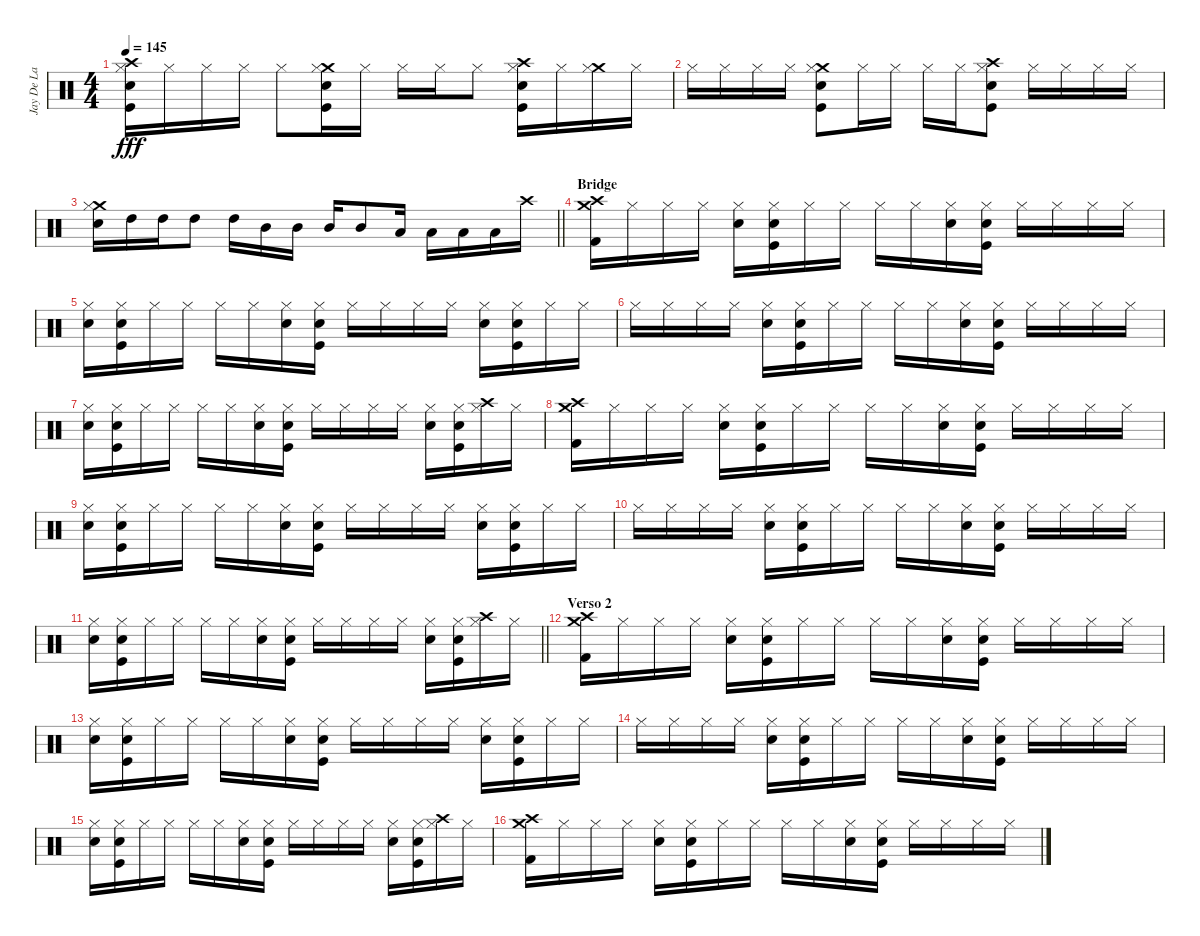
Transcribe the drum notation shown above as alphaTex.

\track ("Jay De La Cueva o C. G." "Jay De La ") {instrument percussion}
\staff {score}
\articulation defaults
\ts (4 4)
\tempo 145
\clef neutral
\ks c
("Crash high (hit)" "Snare (hit) 2" "Hi-Hat (closed)" "Kick (hit)").16{dy fff} "Hi-Hat (closed)".16 "Hi-Hat (closed)".16 "Hi-Hat (closed)".16 "Hi-Hat (closed)".8 ("Crash medium (hit)" "Snare (hit) 2" "Hi-Hat (closed)" "Kick (hit)").16 "Hi-Hat (closed)".16 "Hi-Hat (closed)".16 "Hi-Hat (closed)".16 "Hi-Hat (closed)".8 ("Crash high (hit)" "Snare (hit) 2" "Hi-Hat (closed)" "Kick (hit)").16 "Hi-Hat (closed)".16 ("Crash medium (hit)" "Hi-Hat (closed)").16 "Hi-Hat (closed)".16 |
"Hi-Hat (closed)".16 "Hi-Hat (closed)".16 "Hi-Hat (closed)".16 "Hi-Hat (closed)".16 ("Crash medium (hit)" "Snare (hit) 2" "Hi-Hat (closed)" "Kick (hit)").8 "Hi-Hat (closed)".16 "Hi-Hat (closed)".16 "Hi-Hat (closed)".16 "Hi-Hat (closed)".16 ("Crash high (hit)" "Snare (hit) 2" "Hi-Hat (closed)" "Kick (hit)").8 "Hi-Hat (closed)".16 "Hi-Hat (closed)".16 "Hi-Hat (closed)".16 "Hi-Hat (closed)".16 |
\barLineRight lightlight
("Crash medium (hit)" "Snare (hit) 2" "Hi-Hat (closed)").16 "High Tom (hit)".16 "High Tom (hit)".16 "High Tom (hit)".8 "High Tom (hit)".16 "Mid Tom (hit)".16 "Mid Tom (hit)".16 "Mid Tom (hit)".16 "Mid Tom (hit)".8 "Low Tom (hit)".16 "Low Tom (hit)".16 "Low Tom (hit)".16 "Low Tom (hit)".16 "Crash high (hit)".16 |
\section ("" "Bridge")
("Crash high (hit)" "Crash medium (hit)" "Kick (hit) 2").16 "Hi-Hat (closed)".16 "Hi-Hat (closed)".16 "Hi-Hat (closed)".16 ("Snare (hit) 2" "Hi-Hat (closed)").16 ("Kick (hit)" "Snare (hit) 2" "Hi-Hat (closed)").16 "Hi-Hat (closed)".16 "Hi-Hat (closed)".16 "Hi-Hat (closed)".16 "Hi-Hat (closed)".16 ("Snare (hit) 2" "Hi-Hat (closed)").16 ("Kick (hit)" "Snare (hit) 2" "Hi-Hat (closed)").16 "Hi-Hat (closed)".16 "Hi-Hat (closed)".16 "Hi-Hat (closed)".16 "Hi-Hat (closed)".16 |
("Snare (hit) 2" "Hi-Hat (closed)").16 ("Kick (hit)" "Snare (hit) 2" "Hi-Hat (closed)").16 "Hi-Hat (closed)".16 "Hi-Hat (closed)".16 "Hi-Hat (closed)".16 "Hi-Hat (closed)".16 ("Snare (hit) 2" "Hi-Hat (closed)").16 ("Kick (hit)" "Snare (hit) 2" "Hi-Hat (closed)").16 "Hi-Hat (closed)".16 "Hi-Hat (closed)".16 "Hi-Hat (closed)".16 "Hi-Hat (closed)".16 ("Snare (hit) 2" "Hi-Hat (closed)").16 ("Kick (hit)" "Snare (hit) 2" "Hi-Hat (closed)").16 "Hi-Hat (closed)".16 "Hi-Hat (closed)".16 |
"Hi-Hat (closed)".16 "Hi-Hat (closed)".16 "Hi-Hat (closed)".16 "Hi-Hat (closed)".16 ("Snare (hit) 2" "Hi-Hat (closed)").16 ("Kick (hit)" "Snare (hit) 2" "Hi-Hat (closed)").16 "Hi-Hat (closed)".16 "Hi-Hat (closed)".16 "Hi-Hat (closed)".16 "Hi-Hat (closed)".16 ("Snare (hit) 2" "Hi-Hat (closed)").16 ("Kick (hit)" "Snare (hit) 2" "Hi-Hat (closed)").16 "Hi-Hat (closed)".16 "Hi-Hat (closed)".16 "Hi-Hat (closed)".16 "Hi-Hat (closed)".16 |
("Snare (hit) 2" "Hi-Hat (closed)").16 ("Kick (hit)" "Snare (hit) 2" "Hi-Hat (closed)").16 "Hi-Hat (closed)".16 "Hi-Hat (closed)".16 "Hi-Hat (closed)".16 "Hi-Hat (closed)".16 ("Snare (hit) 2" "Hi-Hat (closed)").16 ("Kick (hit)" "Snare (hit) 2" "Hi-Hat (closed)").16 "Hi-Hat (closed)".16 "Hi-Hat (closed)".16 "Hi-Hat (closed)".16 "Hi-Hat (closed)".16 ("Snare (hit) 2" "Hi-Hat (closed)").16 ("Kick (hit)" "Snare (hit) 2" "Hi-Hat (closed)").16 ("Crash high (hit)" "Hi-Hat (closed)").16 "Hi-Hat (closed)".16 |
("Crash high (hit)" "Crash medium (hit)" "Kick (hit) 2").16 "Hi-Hat (closed)".16 "Hi-Hat (closed)".16 "Hi-Hat (closed)".16 ("Snare (hit) 2" "Hi-Hat (closed)").16 ("Kick (hit)" "Snare (hit) 2" "Hi-Hat (closed)").16 "Hi-Hat (closed)".16 "Hi-Hat (closed)".16 "Hi-Hat (closed)".16 "Hi-Hat (closed)".16 ("Snare (hit) 2" "Hi-Hat (closed)").16 ("Kick (hit)" "Snare (hit) 2" "Hi-Hat (closed)").16 "Hi-Hat (closed)".16 "Hi-Hat (closed)".16 "Hi-Hat (closed)".16 "Hi-Hat (closed)".16 |
("Snare (hit) 2" "Hi-Hat (closed)").16 ("Kick (hit)" "Snare (hit) 2" "Hi-Hat (closed)").16 "Hi-Hat (closed)".16 "Hi-Hat (closed)".16 "Hi-Hat (closed)".16 "Hi-Hat (closed)".16 ("Snare (hit) 2" "Hi-Hat (closed)").16 ("Kick (hit)" "Snare (hit) 2" "Hi-Hat (closed)").16 "Hi-Hat (closed)".16 "Hi-Hat (closed)".16 "Hi-Hat (closed)".16 "Hi-Hat (closed)".16 ("Snare (hit) 2" "Hi-Hat (closed)").16 ("Kick (hit)" "Snare (hit) 2" "Hi-Hat (closed)").16 "Hi-Hat (closed)".16 "Hi-Hat (closed)".16 |
"Hi-Hat (closed)".16 "Hi-Hat (closed)".16 "Hi-Hat (closed)".16 "Hi-Hat (closed)".16 ("Snare (hit) 2" "Hi-Hat (closed)").16 ("Kick (hit)" "Snare (hit) 2" "Hi-Hat (closed)").16 "Hi-Hat (closed)".16 "Hi-Hat (closed)".16 "Hi-Hat (closed)".16 "Hi-Hat (closed)".16 ("Snare (hit) 2" "Hi-Hat (closed)").16 ("Kick (hit)" "Snare (hit) 2" "Hi-Hat (closed)").16 "Hi-Hat (closed)".16 "Hi-Hat (closed)".16 "Hi-Hat (closed)".16 "Hi-Hat (closed)".16 |
\barLineRight lightlight
("Snare (hit) 2" "Hi-Hat (closed)").16 ("Kick (hit)" "Snare (hit) 2" "Hi-Hat (closed)").16 "Hi-Hat (closed)".16 "Hi-Hat (closed)".16 "Hi-Hat (closed)".16 "Hi-Hat (closed)".16 ("Snare (hit) 2" "Hi-Hat (closed)").16 ("Kick (hit)" "Snare (hit) 2" "Hi-Hat (closed)").16 "Hi-Hat (closed)".16 "Hi-Hat (closed)".16 "Hi-Hat (closed)".16 "Hi-Hat (closed)".16 ("Snare (hit) 2" "Hi-Hat (closed)").16 ("Kick (hit)" "Snare (hit) 2" "Hi-Hat (closed)").16 ("Crash high (hit)" "Hi-Hat (closed)").16 "Hi-Hat (closed)".16 |
\section ("" "Verso 2")
("Crash high (hit)" "Crash medium (hit)" "Kick (hit) 2").16 "Hi-Hat (closed)".16 "Hi-Hat (closed)".16 "Hi-Hat (closed)".16 ("Snare (hit) 2" "Hi-Hat (closed)").16 ("Kick (hit)" "Snare (hit) 2" "Hi-Hat (closed)").16 "Hi-Hat (closed)".16 "Hi-Hat (closed)".16 "Hi-Hat (closed)".16 "Hi-Hat (closed)".16 ("Snare (hit) 2" "Hi-Hat (closed)").16 ("Kick (hit)" "Snare (hit) 2" "Hi-Hat (closed)").16 "Hi-Hat (closed)".16 "Hi-Hat (closed)".16 "Hi-Hat (closed)".16 "Hi-Hat (closed)".16 |
("Snare (hit) 2" "Hi-Hat (closed)").16 ("Kick (hit)" "Snare (hit) 2" "Hi-Hat (closed)").16 "Hi-Hat (closed)".16 "Hi-Hat (closed)".16 "Hi-Hat (closed)".16 "Hi-Hat (closed)".16 ("Snare (hit) 2" "Hi-Hat (closed)").16 ("Kick (hit)" "Snare (hit) 2" "Hi-Hat (closed)").16 "Hi-Hat (closed)".16 "Hi-Hat (closed)".16 "Hi-Hat (closed)".16 "Hi-Hat (closed)".16 ("Snare (hit) 2" "Hi-Hat (closed)").16 ("Kick (hit)" "Snare (hit) 2" "Hi-Hat (closed)").16 "Hi-Hat (closed)".16 "Hi-Hat (closed)".16 |
"Hi-Hat (closed)".16 "Hi-Hat (closed)".16 "Hi-Hat (closed)".16 "Hi-Hat (closed)".16 ("Snare (hit) 2" "Hi-Hat (closed)").16 ("Kick (hit)" "Snare (hit) 2" "Hi-Hat (closed)").16 "Hi-Hat (closed)".16 "Hi-Hat (closed)".16 "Hi-Hat (closed)".16 "Hi-Hat (closed)".16 ("Snare (hit) 2" "Hi-Hat (closed)").16 ("Kick (hit)" "Snare (hit) 2" "Hi-Hat (closed)").16 "Hi-Hat (closed)".16 "Hi-Hat (closed)".16 "Hi-Hat (closed)".16 "Hi-Hat (closed)".16 |
("Snare (hit) 2" "Hi-Hat (closed)").16 ("Kick (hit)" "Snare (hit) 2" "Hi-Hat (closed)").16 "Hi-Hat (closed)".16 "Hi-Hat (closed)".16 "Hi-Hat (closed)".16 "Hi-Hat (closed)".16 ("Snare (hit) 2" "Hi-Hat (closed)").16 ("Kick (hit)" "Snare (hit) 2" "Hi-Hat (closed)").16 "Hi-Hat (closed)".16 "Hi-Hat (closed)".16 "Hi-Hat (closed)".16 "Hi-Hat (closed)".16 ("Snare (hit) 2" "Hi-Hat (closed)").16 ("Kick (hit)" "Snare (hit) 2" "Hi-Hat (closed)").16 ("Crash high (hit)" "Hi-Hat (closed)").16 "Hi-Hat (closed)".16 |
("Crash high (hit)" "Crash medium (hit)" "Kick (hit) 2").16 "Hi-Hat (closed)".16 "Hi-Hat (closed)".16 "Hi-Hat (closed)".16 ("Snare (hit) 2" "Hi-Hat (closed)").16 ("Kick (hit)" "Snare (hit) 2" "Hi-Hat (closed)").16 "Hi-Hat (closed)".16 "Hi-Hat (closed)".16 "Hi-Hat (closed)".16 "Hi-Hat (closed)".16 ("Snare (hit) 2" "Hi-Hat (closed)").16 ("Kick (hit)" "Snare (hit) 2" "Hi-Hat (closed)").16 "Hi-Hat (closed)".16 "Hi-Hat (closed)".16 "Hi-Hat (closed)".16 "Hi-Hat (closed)".16
